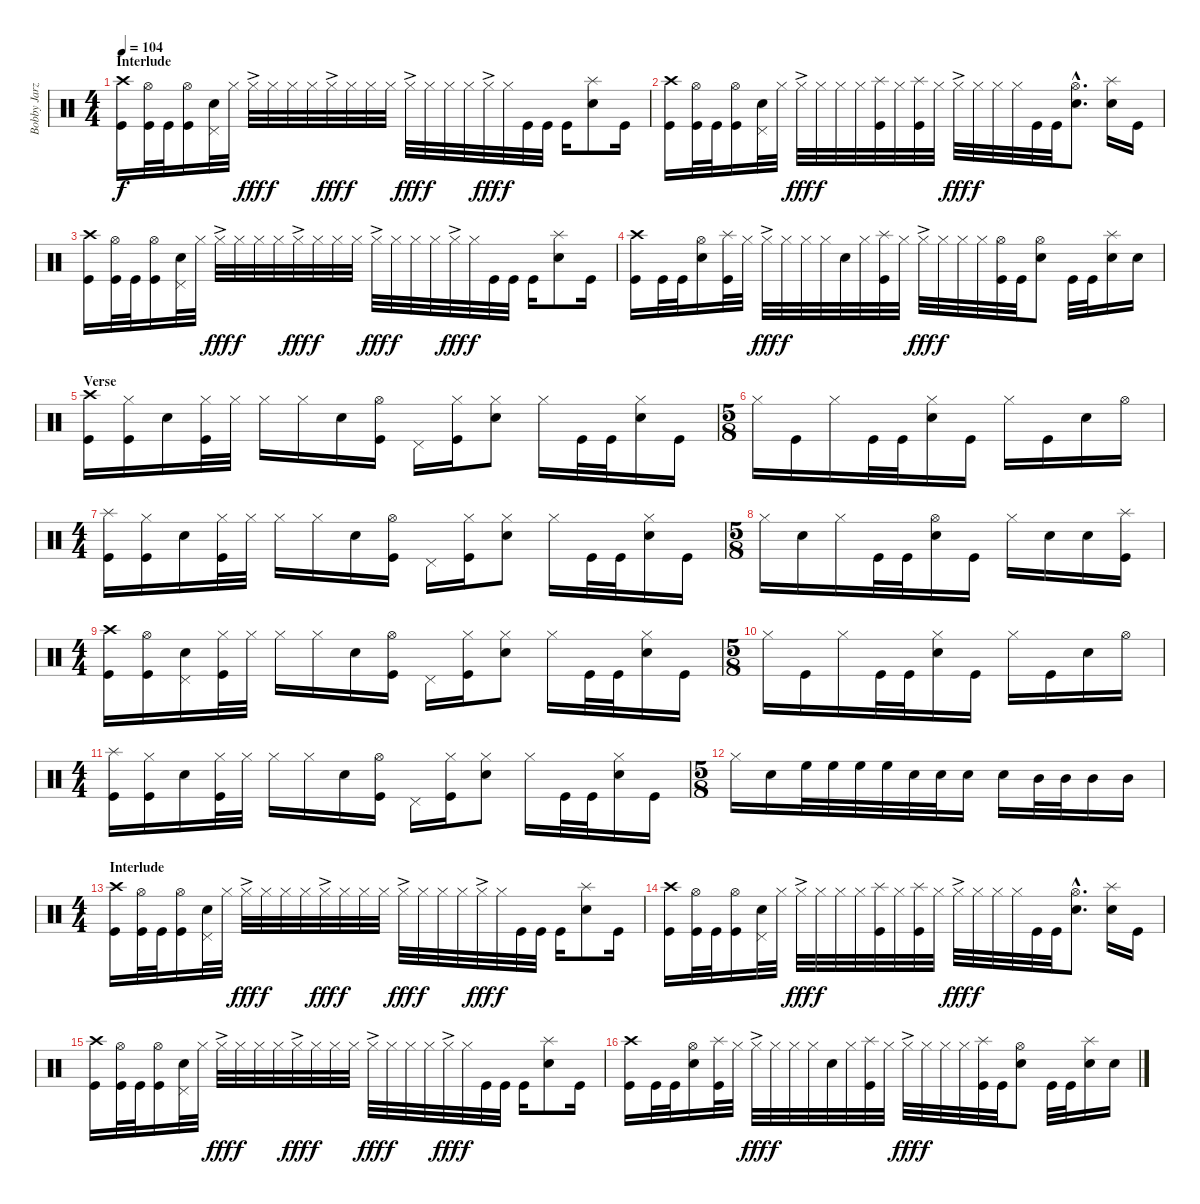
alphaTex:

\track ("Bobby Jarzombek" "Bobby Jarz") {instrument percussion}
\staff {score}
\articulation defaults
\ts (4 4)
\section ("" "Interlude")
\tempo 104
\clef neutral
\ks c
("Crash high (hit)" "Kick (hit)").16{dy f} ("Hi-Hat (open)" "Kick (hit)").32 "Kick (hit)".32 ("Hi-Hat (open)" "Kick (hit)").16 ("Electric Snare (hit)" "Pedal Hi-Hat (hit)").32 "Hi-Hat (closed)".32 "Hi-Hat (closed)"{ac}.32{dy fff} "Hi-Hat (closed)".32{dy f} "Hi-Hat (closed)".32 "Hi-Hat (closed)".32 "Hi-Hat (closed)"{ac}.32{dy fff} "Hi-Hat (closed)".32{dy f} "Hi-Hat (closed)".32 "Hi-Hat (closed)".32 "Hi-Hat (closed)"{ac}.32{dy fff} "Hi-Hat (closed)".32{dy f} "Hi-Hat (closed)".32 "Hi-Hat (closed)".32 "Hi-Hat (closed)"{ac}.32{dy fff} "Hi-Hat (closed)".32{dy f} "Kick (hit)".32 "Kick (hit)".32 "Kick (hit)".16 ("Splash (hit)" "Electric Snare (hit)").8 "Kick (hit)".16 |
("Crash high (hit)" "Kick (hit)").16 ("Hi-Hat (open)" "Kick (hit)").32 "Kick (hit)".32 ("Hi-Hat (open)" "Kick (hit)").16 ("Electric Snare (hit)" "Pedal Hi-Hat (hit)").32 "Hi-Hat (closed)".32 "Hi-Hat (closed)"{ac}.32{dy fff} "Hi-Hat (closed)".32{dy f} "Hi-Hat (closed)".32 "Hi-Hat (closed)".32 ("Splash (hit)" "Kick (hit)").32 "Hi-Hat (closed)".32 ("Splash (hit)" "Kick (hit)").32 "Hi-Hat (closed)".32 "Hi-Hat (closed)"{ac}.32{dy fff} "Hi-Hat (closed)".32{dy f} "Hi-Hat (closed)".32 "Hi-Hat (closed)".32 "Kick (hit)".32 "Kick (hit)".32 ("Hi-Hat (open)"{hac} "Electric Snare (hit)"{hac}).8{d} ("Splash (hit)" "Electric Snare (hit)").16 "Kick (hit)".16 |
("Crash high (hit)" "Kick (hit)").16 ("Hi-Hat (open)" "Kick (hit)").32 "Kick (hit)".32 ("Hi-Hat (open)" "Kick (hit)").16 ("Electric Snare (hit)" "Pedal Hi-Hat (hit)").32 "Hi-Hat (closed)".32 "Hi-Hat (closed)"{ac}.32{dy fff} "Hi-Hat (closed)".32{dy f} "Hi-Hat (closed)".32 "Hi-Hat (closed)".32 "Hi-Hat (closed)"{ac}.32{dy fff} "Hi-Hat (closed)".32{dy f} "Hi-Hat (closed)".32 "Hi-Hat (closed)".32 "Hi-Hat (closed)"{ac}.32{dy fff} "Hi-Hat (closed)".32{dy f} "Hi-Hat (closed)".32 "Hi-Hat (closed)".32 "Hi-Hat (closed)"{ac}.32{dy fff} "Hi-Hat (closed)".32{dy f} "Kick (hit)".32 "Kick (hit)".32 "Kick (hit)".16 ("Splash (hit)" "Electric Snare (hit)").8 "Kick (hit)".16 |
("Crash high (hit)" "Kick (hit)").16 "Kick (hit)".32 "Kick (hit)".32 ("Hi-Hat (open)" "Electric Snare (hit)").16 ("Splash (hit)" "Kick (hit)").32 "Hi-Hat (closed)".32 "Hi-Hat (closed)"{ac}.32{dy fff} "Hi-Hat (closed)".32{dy f} "Hi-Hat (closed)".32 "Hi-Hat (closed)".32 "Electric Snare (hit)".32 "Hi-Hat (closed)".32 ("Splash (hit)" "Kick (hit)").32 "Hi-Hat (closed)".32 "Hi-Hat (closed)"{ac}.32{dy fff} "Hi-Hat (closed)".32{dy f} "Hi-Hat (closed)".32 "Hi-Hat (closed)".32 ("Hi-Hat (open)" "Kick (hit)").32 "Kick (hit)".32 ("Hi-Hat (open)" "Electric Snare (hit)").8 "Kick (hit)".32 "Kick (hit)".32 ("Splash (hit)" "Electric Snare (hit)").16 "Electric Snare (hit)".16 |
\section ("" "Verse")
("Crash high (hit)" "Kick (hit)").16 ("Hi-Hat (closed)" "Kick (hit)").16 "Electric Snare (hit)".16 ("Hi-Hat (closed)" "Kick (hit)").32 "Hi-Hat (closed)".32 "Hi-Hat (closed)".16 "Hi-Hat (closed)".16 "Electric Snare (hit)".16 ("Hi-Hat (open)" "Kick (hit)").16 "Pedal Hi-Hat (hit)".16 ("Hi-Hat (closed)" "Kick (hit)").16 ("Hi-Hat (closed)" "Electric Snare (hit)").8 "Hi-Hat (closed)".16 "Kick (hit)".32 "Kick (hit)".32 ("Hi-Hat (closed)" "Electric Snare (hit)").16 "Kick (hit)".16 |
\ts (5 8)
"Hi-Hat (closed)".16 "Kick (hit)".16 "Hi-Hat (closed)".16 "Kick (hit)".32 "Kick (hit)".32 ("Hi-Hat (closed)" "Electric Snare (hit)").16 "Kick (hit)".16 "Hi-Hat (closed)".16 "Kick (hit)".16 "Electric Snare (hit)".16 "Hi-Hat (open)".16 |
\ts (4 4)
("Splash (hit)" "Kick (hit)").16 ("Hi-Hat (closed)" "Kick (hit)").16 "Electric Snare (hit)".16 ("Hi-Hat (closed)" "Kick (hit)").32 "Hi-Hat (closed)".32 "Hi-Hat (closed)".16 "Hi-Hat (closed)".16 "Electric Snare (hit)".16 ("Hi-Hat (open)" "Kick (hit)").16 "Pedal Hi-Hat (hit)".16 ("Hi-Hat (closed)" "Kick (hit)").16 ("Hi-Hat (closed)" "Electric Snare (hit)").8 "Hi-Hat (closed)".16 "Kick (hit)".32 "Kick (hit)".32 ("Hi-Hat (closed)" "Electric Snare (hit)").16 "Kick (hit)".16 |
\ts (5 8)
"Hi-Hat (closed)".16 "Electric Snare (hit)".16 "Hi-Hat (closed)".16 "Kick (hit)".32 "Kick (hit)".32 ("Hi-Hat (open)" "Electric Snare (hit)").16 "Kick (hit)".16 "Hi-Hat (closed)".16 "Electric Snare (hit)".16 "Electric Snare (hit)".16 ("Splash (hit)" "Kick (hit)").16 |
\ts (4 4)
("Crash high (hit)" "Kick (hit)").16 ("Hi-Hat (open)" "Kick (hit)").16 ("Electric Snare (hit)" "Pedal Hi-Hat (hit)").16 ("Hi-Hat (closed)" "Kick (hit)").32 "Hi-Hat (closed)".32 "Hi-Hat (closed)".16 "Hi-Hat (closed)".16 "Electric Snare (hit)".16 ("Hi-Hat (open)" "Kick (hit)").16 "Pedal Hi-Hat (hit)".16 ("Hi-Hat (closed)" "Kick (hit)").16 ("Hi-Hat (closed)" "Electric Snare (hit)").8 "Hi-Hat (closed)".16 "Kick (hit)".32 "Kick (hit)".32 ("Hi-Hat (closed)" "Electric Snare (hit)").16 "Kick (hit)".16 |
\ts (5 8)
"Hi-Hat (closed)".16 "Kick (hit)".16 "Hi-Hat (closed)".16 "Kick (hit)".32 "Kick (hit)".32 ("Hi-Hat (closed)" "Electric Snare (hit)").16 "Kick (hit)".16 "Hi-Hat (closed)".16 "Kick (hit)".16 "Electric Snare (hit)".16 "Hi-Hat (open)".16 |
\ts (4 4)
("Splash (hit)" "Kick (hit)").16 ("Hi-Hat (closed)" "Kick (hit)").16 "Electric Snare (hit)".16 ("Hi-Hat (closed)" "Kick (hit)").32 "Hi-Hat (closed)".32 "Hi-Hat (closed)".16 "Hi-Hat (closed)".16 "Electric Snare (hit)".16 ("Hi-Hat (open)" "Kick (hit)").16 "Pedal Hi-Hat (hit)".16 ("Hi-Hat (closed)" "Kick (hit)").16 ("Hi-Hat (closed)" "Electric Snare (hit)").8 "Hi-Hat (closed)".16 "Kick (hit)".32 "Kick (hit)".32 ("Hi-Hat (closed)" "Electric Snare (hit)").16 "Kick (hit)".16 |
\ts (5 8)
"Hi-Hat (closed)".16 "Electric Snare (hit)".16 "High Floor Tom (hit)".32 "High Floor Tom (hit)".32 "High Floor Tom (hit)".32 "High Floor Tom (hit)".32 "Electric Snare (hit)".32 "Electric Snare (hit)".32 "Electric Snare (hit)".16 "Electric Snare (hit)".16 "Mid Tom (hit)".32 "Mid Tom (hit)".32 "Mid Tom (hit)".16 "Mid Tom (hit)".16 |
\ts (4 4)
\section ("" "Interlude")
("Crash high (hit)" "Kick (hit)").16 ("Hi-Hat (open)" "Kick (hit)").32 "Kick (hit)".32 ("Hi-Hat (open)" "Kick (hit)").16 ("Electric Snare (hit)" "Pedal Hi-Hat (hit)").32 "Hi-Hat (closed)".32 "Hi-Hat (closed)"{ac}.32{dy fff} "Hi-Hat (closed)".32{dy f} "Hi-Hat (closed)".32 "Hi-Hat (closed)".32 "Hi-Hat (closed)"{ac}.32{dy fff} "Hi-Hat (closed)".32{dy f} "Hi-Hat (closed)".32 "Hi-Hat (closed)".32 "Hi-Hat (closed)"{ac}.32{dy fff} "Hi-Hat (closed)".32{dy f} "Hi-Hat (closed)".32 "Hi-Hat (closed)".32 "Hi-Hat (closed)"{ac}.32{dy fff} "Hi-Hat (closed)".32{dy f} "Kick (hit)".32 "Kick (hit)".32 "Kick (hit)".16 ("Splash (hit)" "Electric Snare (hit)").8 "Kick (hit)".16 |
("Crash high (hit)" "Kick (hit)").16 ("Hi-Hat (open)" "Kick (hit)").32 "Kick (hit)".32 ("Hi-Hat (open)" "Kick (hit)").16 ("Electric Snare (hit)" "Pedal Hi-Hat (hit)").32 "Hi-Hat (closed)".32 "Hi-Hat (closed)"{ac}.32{dy fff} "Hi-Hat (closed)".32{dy f} "Hi-Hat (closed)".32 "Hi-Hat (closed)".32 ("Splash (hit)" "Kick (hit)").32 "Hi-Hat (closed)".32 ("Splash (hit)" "Kick (hit)").32 "Hi-Hat (closed)".32 "Hi-Hat (closed)"{ac}.32{dy fff} "Hi-Hat (closed)".32{dy f} "Hi-Hat (closed)".32 "Hi-Hat (closed)".32 "Kick (hit)".32 "Kick (hit)".32 ("Hi-Hat (open)"{hac} "Electric Snare (hit)"{hac}).8{d} ("Splash (hit)" "Electric Snare (hit)").16 "Kick (hit)".16 |
("Crash high (hit)" "Kick (hit)").16 ("Hi-Hat (open)" "Kick (hit)").32 "Kick (hit)".32 ("Hi-Hat (open)" "Kick (hit)").16 ("Electric Snare (hit)" "Pedal Hi-Hat (hit)").32 "Hi-Hat (closed)".32 "Hi-Hat (closed)"{ac}.32{dy fff} "Hi-Hat (closed)".32{dy f} "Hi-Hat (closed)".32 "Hi-Hat (closed)".32 "Hi-Hat (closed)"{ac}.32{dy fff} "Hi-Hat (closed)".32{dy f} "Hi-Hat (closed)".32 "Hi-Hat (closed)".32 "Hi-Hat (closed)"{ac}.32{dy fff} "Hi-Hat (closed)".32{dy f} "Hi-Hat (closed)".32 "Hi-Hat (closed)".32 "Hi-Hat (closed)"{ac}.32{dy fff} "Hi-Hat (closed)".32{dy f} "Kick (hit)".32 "Kick (hit)".32 "Kick (hit)".16 ("Splash (hit)" "Electric Snare (hit)").8 "Kick (hit)".16 |
("Crash high (hit)" "Kick (hit)").16 "Kick (hit)".32 "Kick (hit)".32 ("Hi-Hat (open)" "Electric Snare (hit)").16 ("Splash (hit)" "Kick (hit)").32 "Hi-Hat (closed)".32 "Hi-Hat (closed)"{ac}.32{dy fff} "Hi-Hat (closed)".32{dy f} "Hi-Hat (closed)".32 "Hi-Hat (closed)".32 "Electric Snare (hit)".32 "Hi-Hat (closed)".32 ("Splash (hit)" "Kick (hit)").32 "Hi-Hat (closed)".32 "Hi-Hat (closed)"{ac}.32{dy fff} "Hi-Hat (closed)".32{dy f} "Hi-Hat (closed)".32 "Hi-Hat (closed)".32 ("Splash (hit)" "Kick (hit)").32 "Kick (hit)".32 ("Hi-Hat (open)" "Electric Snare (hit)").8 "Kick (hit)".32 "Kick (hit)".32 ("Splash (hit)" "Electric Snare (hit)").16 "Electric Snare (hit)".16
